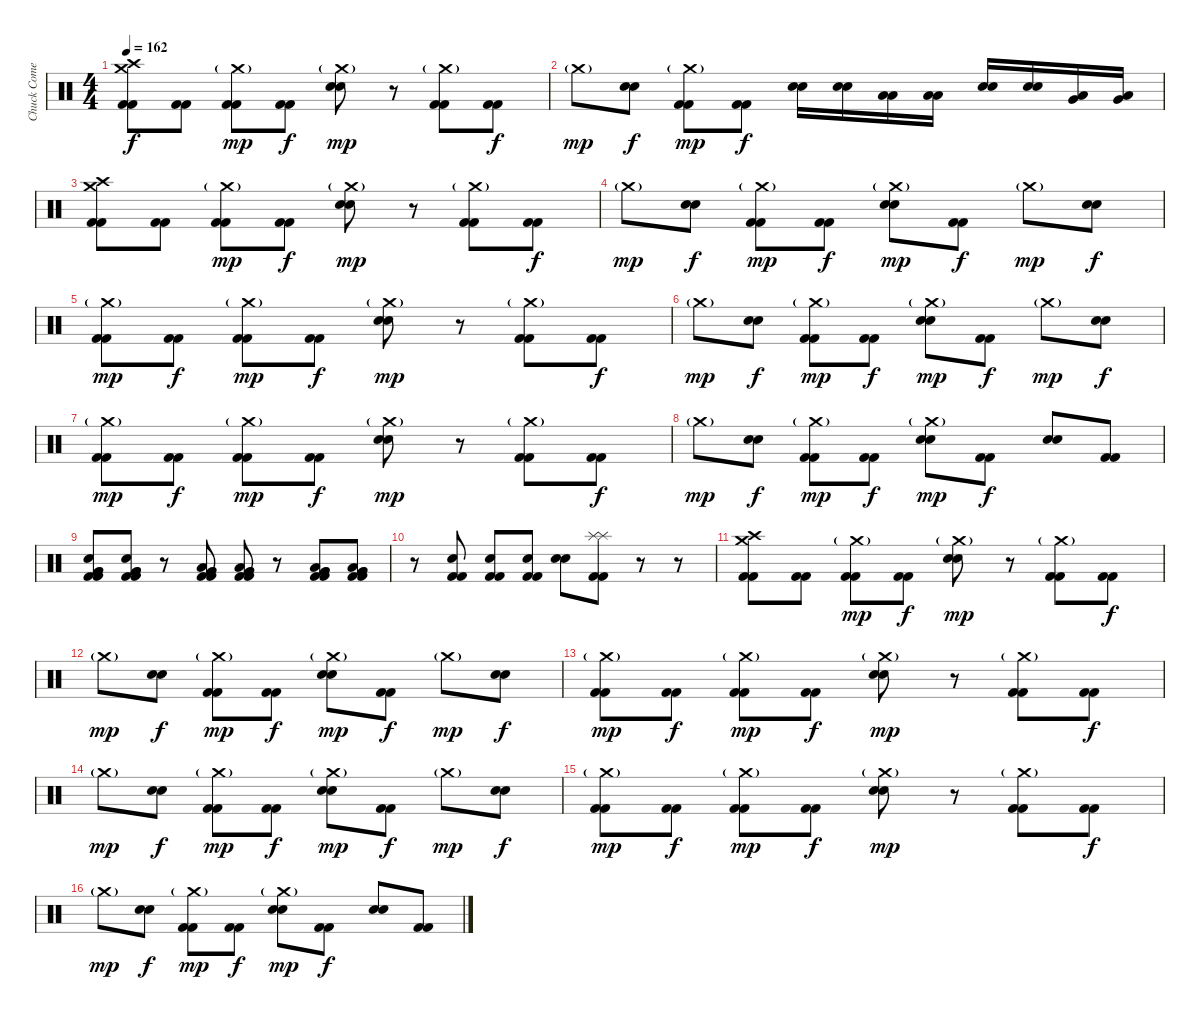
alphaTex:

\track ("Chuck Comeau" "Chuck Come") {instrument percussion}
\staff {score}
\articulation defaults
\ts (4 4)
\tempo 162
\clef neutral
\ks c
("Crash medium (hit)" "Crash high (hit)" "Kick (hit) 2" "Kick (hit) 2").8{dy f} ("Kick (hit) 2" "Kick (hit) 2").8 ("Crash medium (hit)"{g} "Kick (hit) 2" "Kick (hit) 2").8{dy mp} ("Kick (hit) 2" "Kick (hit) 2").8{dy f} ("Crash medium (hit)"{g} "Snare (hit) 2" "Snare (hit) 2").8{dy mp} r.8 ("Crash medium (hit)"{g} "Kick (hit) 2" "Kick (hit) 2").8 ("Kick (hit) 2" "Kick (hit) 2").8{dy f} |
"Crash medium (hit)"{g}.8{dy mp} ("Snare (hit) 2" "Snare (hit) 2").8{dy f} ("Crash medium (hit)"{g} "Kick (hit) 2" "Kick (hit) 2").8{dy mp} ("Kick (hit) 2" "Kick (hit) 2").8{dy f} ("Snare (hit) 2" "Snare (hit) 2").16 ("Snare (hit) 2" "Snare (hit) 2").16 ("Low Tom (hit)" "Low Tom (hit)").16 ("Low Tom (hit)" "Low Tom (hit)").16 ("Snare (hit) 2" "Snare (hit) 2").16 ("Snare (hit) 2" "Snare (hit) 2").16 ("Very Low Tom (hit)" "Low Tom (hit)").16 ("Low Floor Tom (hit)" "Very Low Tom (hit)").16 |
("Crash medium (hit)" "Crash high (hit)" "Kick (hit) 2" "Kick (hit) 2").8 ("Kick (hit) 2" "Kick (hit) 2").8 ("Crash medium (hit)"{g} "Kick (hit) 2" "Kick (hit) 2").8{dy mp} ("Kick (hit) 2" "Kick (hit) 2").8{dy f} ("Crash medium (hit)"{g} "Snare (hit) 2" "Snare (hit) 2").8{dy mp} r.8 ("Crash medium (hit)"{g} "Kick (hit) 2" "Kick (hit) 2").8 ("Kick (hit) 2" "Kick (hit) 2").8{dy f} |
"Crash medium (hit)"{g}.8{dy mp} ("Snare (hit) 2" "Snare (hit) 2").8{dy f} ("Crash medium (hit)"{g} "Kick (hit) 2" "Kick (hit) 2").8{dy mp} ("Kick (hit) 2" "Kick (hit) 2").8{dy f} ("Crash medium (hit)"{g} "Snare (hit) 2" "Snare (hit) 2").8{dy mp} ("Kick (hit) 2" "Kick (hit) 2").8{dy f} "Crash medium (hit)"{g}.8{dy mp} ("Snare (hit) 2" "Snare (hit) 2").8{dy f} |
("Crash medium (hit)"{g} "Kick (hit) 2" "Kick (hit) 2").8{dy mp} ("Kick (hit) 2" "Kick (hit) 2").8{dy f} ("Crash medium (hit)"{g} "Kick (hit) 2" "Kick (hit) 2").8{dy mp} ("Kick (hit) 2" "Kick (hit) 2").8{dy f} ("Crash medium (hit)"{g} "Snare (hit) 2" "Snare (hit) 2").8{dy mp} r.8 ("Crash medium (hit)"{g} "Kick (hit) 2" "Kick (hit) 2").8 ("Kick (hit) 2" "Kick (hit) 2").8{dy f} |
"Crash medium (hit)"{g}.8{dy mp} ("Snare (hit) 2" "Snare (hit) 2").8{dy f} ("Crash medium (hit)"{g} "Kick (hit) 2" "Kick (hit) 2").8{dy mp} ("Kick (hit) 2" "Kick (hit) 2").8{dy f} ("Crash medium (hit)"{g} "Snare (hit) 2" "Snare (hit) 2").8{dy mp} ("Kick (hit) 2" "Kick (hit) 2").8{dy f} "Crash medium (hit)"{g}.8{dy mp} ("Snare (hit) 2" "Snare (hit) 2").8{dy f} |
("Crash medium (hit)"{g} "Kick (hit) 2" "Kick (hit) 2").8{dy mp} ("Kick (hit) 2" "Kick (hit) 2").8{dy f} ("Crash medium (hit)"{g} "Kick (hit) 2" "Kick (hit) 2").8{dy mp} ("Kick (hit) 2" "Kick (hit) 2").8{dy f} ("Crash medium (hit)"{g} "Snare (hit) 2" "Snare (hit) 2").8{dy mp} r.8 ("Crash medium (hit)"{g} "Kick (hit) 2" "Kick (hit) 2").8 ("Kick (hit) 2" "Kick (hit) 2").8{dy f} |
"Crash medium (hit)"{g}.8{dy mp} ("Snare (hit) 2" "Snare (hit) 2").8{dy f} ("Crash medium (hit)"{g} "Kick (hit) 2" "Kick (hit) 2").8{dy mp} ("Kick (hit) 2" "Kick (hit) 2").8{dy f} ("Crash medium (hit)"{g} "Snare (hit) 2" "Snare (hit) 2").8{dy mp} ("Kick (hit) 2" "Kick (hit) 2").8{dy f} ("Snare (hit) 2" "Snare (hit) 2").8 ("Kick (hit) 2" "Kick (hit) 2").8 |
("Very Low Tom (hit)" "Very Low Tom (hit)" "Snare (hit) 2" "Kick (hit) 2" "Kick (hit) 2").8 ("Very Low Tom (hit)" "Very Low Tom (hit)" "Snare (hit) 2" "Kick (hit) 2" "Kick (hit) 2").8 r.8 ("Very Low Tom (hit)" "Very Low Tom (hit)" "Low Floor Tom (hit)" "Kick (hit) 2" "Kick (hit) 2").8 ("Very Low Tom (hit)" "Very Low Tom (hit)" "Low Floor Tom (hit)" "Kick (hit) 2" "Kick (hit) 2").8 r.8 ("Very Low Tom (hit)" "Very Low Tom (hit)" "Low Floor Tom (hit)" "Kick (hit) 2" "Kick (hit) 2").8 ("Very Low Tom (hit)" "Very Low Tom (hit)" "Low Floor Tom (hit)" "Kick (hit) 2" "Kick (hit) 2").8 |
r.8 ("Snare (hit) 2" "Kick (hit) 2" "Kick (hit) 2").8 ("Snare (hit) 2" "Kick (hit) 2" "Kick (hit) 2").8 ("Snare (hit) 2" "Kick (hit) 2" "Kick (hit) 2").8 ("Snare (hit) 2" "Snare (hit) 2").8 ("Splash (hit)" "Splash (hit)" "Kick (hit) 2" "Kick (hit) 2").8 r.8 r.8 |
("Crash medium (hit)" "Crash high (hit)" "Kick (hit) 2" "Kick (hit) 2").8 ("Kick (hit) 2" "Kick (hit) 2").8 ("Crash medium (hit)"{g} "Kick (hit) 2" "Kick (hit) 2").8{dy mp} ("Kick (hit) 2" "Kick (hit) 2").8{dy f} ("Crash medium (hit)"{g} "Snare (hit) 2" "Snare (hit) 2").8{dy mp} r.8 ("Crash medium (hit)"{g} "Kick (hit) 2" "Kick (hit) 2").8 ("Kick (hit) 2" "Kick (hit) 2").8{dy f} |
"Crash medium (hit)"{g}.8{dy mp} ("Snare (hit) 2" "Snare (hit) 2").8{dy f} ("Crash medium (hit)"{g} "Kick (hit) 2" "Kick (hit) 2").8{dy mp} ("Kick (hit) 2" "Kick (hit) 2").8{dy f} ("Crash medium (hit)"{g} "Snare (hit) 2" "Snare (hit) 2").8{dy mp} ("Kick (hit) 2" "Kick (hit) 2").8{dy f} "Crash medium (hit)"{g}.8{dy mp} ("Snare (hit) 2" "Snare (hit) 2").8{dy f} |
("Crash medium (hit)"{g} "Kick (hit) 2" "Kick (hit) 2").8{dy mp} ("Kick (hit) 2" "Kick (hit) 2").8{dy f} ("Crash medium (hit)"{g} "Kick (hit) 2" "Kick (hit) 2").8{dy mp} ("Kick (hit) 2" "Kick (hit) 2").8{dy f} ("Crash medium (hit)"{g} "Snare (hit) 2" "Snare (hit) 2").8{dy mp} r.8 ("Crash medium (hit)"{g} "Kick (hit) 2" "Kick (hit) 2").8 ("Kick (hit) 2" "Kick (hit) 2").8{dy f} |
"Crash medium (hit)"{g}.8{dy mp} ("Snare (hit) 2" "Snare (hit) 2").8{dy f} ("Crash medium (hit)"{g} "Kick (hit) 2" "Kick (hit) 2").8{dy mp} ("Kick (hit) 2" "Kick (hit) 2").8{dy f} ("Crash medium (hit)"{g} "Snare (hit) 2" "Snare (hit) 2").8{dy mp} ("Kick (hit) 2" "Kick (hit) 2").8{dy f} "Crash medium (hit)"{g}.8{dy mp} ("Snare (hit) 2" "Snare (hit) 2").8{dy f} |
("Crash medium (hit)"{g} "Kick (hit) 2" "Kick (hit) 2").8{dy mp} ("Kick (hit) 2" "Kick (hit) 2").8{dy f} ("Crash medium (hit)"{g} "Kick (hit) 2" "Kick (hit) 2").8{dy mp} ("Kick (hit) 2" "Kick (hit) 2").8{dy f} ("Crash medium (hit)"{g} "Snare (hit) 2" "Snare (hit) 2").8{dy mp} r.8 ("Crash medium (hit)"{g} "Kick (hit) 2" "Kick (hit) 2").8 ("Kick (hit) 2" "Kick (hit) 2").8{dy f} |
"Crash medium (hit)"{g}.8{dy mp} ("Snare (hit) 2" "Snare (hit) 2").8{dy f} ("Crash medium (hit)"{g} "Kick (hit) 2" "Kick (hit) 2").8{dy mp} ("Kick (hit) 2" "Kick (hit) 2").8{dy f} ("Crash medium (hit)"{g} "Snare (hit) 2" "Snare (hit) 2").8{dy mp} ("Kick (hit) 2" "Kick (hit) 2").8{dy f} ("Snare (hit) 2" "Snare (hit) 2").8 ("Kick (hit) 2" "Kick (hit) 2").8
